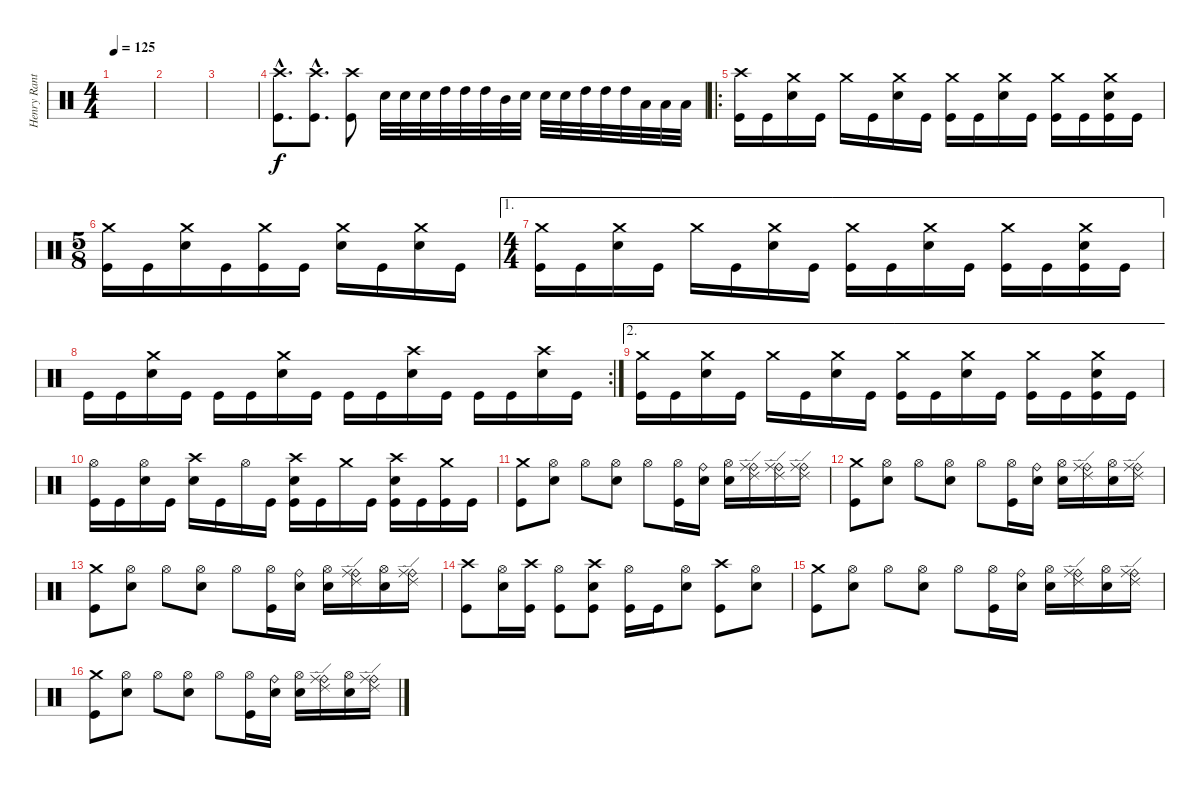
\track ("Henry Ranta" "Henry Rant") {instrument percussion}
\staff {score}
\articulation defaults
\ts (4 4)
\tempo 125
\clef neutral
\ks c
|
|
|
("Crash high (hit)"{hac} "Kick (hit)"{hac}).8{d} ("Crash high (hit)"{hac} "Kick (hit)"{hac}).8{d} ("Crash high (hit)" "Kick (hit)").8 "Electric Snare (hit)".32 "Electric Snare (hit)".32 "Electric Snare (hit)".32 "High Tom (hit)".32 "High Tom (hit)".32 "High Tom (hit)".32 "Mid Tom (hit)".32 "Electric Snare (hit)".32 "Electric Snare (hit)".32 "Electric Snare (hit)".32 "High Tom (hit)".32 "High Tom (hit)".32 "High Tom (hit)".32 "Low Tom (hit)".32 "Low Tom (hit)".32 "Low Tom (hit)".32 |
\ro
("Crash high (hit)" "Kick (hit)").16 "Kick (hit)".16 ("Crash medium (hit)" "Electric Snare (hit)").16 "Kick (hit)".16 "Crash medium (hit)".16 "Kick (hit)".16 ("Crash medium (hit)" "Electric Snare (hit)").16 "Kick (hit)".16 ("Crash medium (hit)" "Kick (hit)").16 "Kick (hit)".16 ("Crash medium (hit)" "Electric Snare (hit)").16 "Kick (hit)".16 ("Crash medium (hit)" "Kick (hit)").16 "Kick (hit)".16 ("Crash medium (hit)" "Electric Snare (hit)" "Kick (hit)").16 "Kick (hit)".16 |
\ts (5 8)
("Crash medium (hit)" "Kick (hit)").16 "Kick (hit)".16 ("Crash medium (hit)" "Electric Snare (hit)").16 "Kick (hit)".16 ("Crash medium (hit)" "Kick (hit)").16 "Kick (hit)".16 ("Crash medium (hit)" "Electric Snare (hit)").16 "Kick (hit)".16 ("Crash medium (hit)" "Electric Snare (hit)").16 "Kick (hit)".16 |
\ae 1
\ts (4 4)
("Crash medium (hit)" "Kick (hit)").16 "Kick (hit)".16 ("Crash medium (hit)" "Electric Snare (hit)").16 "Kick (hit)".16 "Crash medium (hit)".16 "Kick (hit)".16 ("Crash medium (hit)" "Electric Snare (hit)").16 "Kick (hit)".16 ("Crash medium (hit)" "Kick (hit)").16 "Kick (hit)".16 ("Crash medium (hit)" "Electric Snare (hit)").16 "Kick (hit)".16 ("Crash medium (hit)" "Kick (hit)").16 "Kick (hit)".16 ("Crash medium (hit)" "Electric Snare (hit)" "Kick (hit)").16 "Kick (hit)".16 |
\rc 2 "Kick (hit)".16 "Kick (hit)".16
("Crash medium (hit)" "Electric Snare (hit)").16 "Kick (hit)".16 "Kick (hit)".16 "Kick (hit)".16 ("Crash medium (hit)" "Electric Snare (hit)").16 "Kick (hit)".16 "Kick (hit)".16 "Kick (hit)".16 ("Crash high (hit)" "Electric Snare (hit)").16 "Kick (hit)".16 "Kick (hit)".16 "Kick (hit)".16 ("Crash high (hit)" "Electric Snare (hit)").16 "Kick (hit)".16 |
\ae 2
("Crash medium (hit)" "Kick (hit)").16 "Kick (hit)".16 ("Crash medium (hit)" "Electric Snare (hit)").16 "Kick (hit)".16 "Crash medium (hit)".16 "Kick (hit)".16 ("Crash medium (hit)" "Electric Snare (hit)").16 "Kick (hit)".16 ("Crash medium (hit)" "Kick (hit)").16 "Kick (hit)".16 ("Crash medium (hit)" "Electric Snare (hit)").16 "Kick (hit)".16 ("Crash medium (hit)" "Kick (hit)").16 "Kick (hit)".16 ("Crash medium (hit)" "Electric Snare (hit)" "Kick (hit)").16 "Kick (hit)".16 |
("Hi-Hat (open)" "Kick (hit)").16 "Kick (hit)".16 ("Hi-Hat (open)" "Electric Snare (hit)").16 "Kick (hit)".16 ("Crash high (hit)" "Electric Snare (hit)").16 "Kick (hit)".16 "Hi-Hat (open)".16 "Kick (hit)".16 ("Crash high (hit)" "Electric Snare (hit)" "Kick (hit)").16 "Kick (hit)".16 "Crash medium (hit)".16 "Kick (hit)".16 ("Crash high (hit)" "Electric Snare (hit)" "Kick (hit)").16 "Kick (hit)".16 ("Crash medium (hit)" "Kick (hit)").16 "Kick (hit)".16 |
("Crash medium (hit)" "Kick (hit)").8 ("Hi-Hat (open)" "Electric Snare (hit)").8 "Hi-Hat (open)".8 ("Hi-Hat (open)" "Electric Snare (hit)").8 "Hi-Hat (open)".8 ("Hi-Hat (open)" "Kick (hit)").16 ("Ride (bell)" "Electric Snare (hit)").16 ("Hi-Hat (open)" "Electric Snare (hit)").16 ("Ride (edge) 2" "Ride (bell)" "Ride (middle)").16 ("Ride (edge) 2" "Ride (bell)" "Ride (middle)").16 ("Ride (edge) 2" "Ride (bell)" "Ride (middle)").16 |
("Crash medium (hit)" "Kick (hit)").8 ("Hi-Hat (open)" "Electric Snare (hit)").8 "Hi-Hat (open)".8 ("Hi-Hat (open)" "Electric Snare (hit)").8 "Hi-Hat (open)".8 ("Hi-Hat (open)" "Kick (hit)").16 ("Ride (bell)" "Electric Snare (hit)").16 ("Hi-Hat (open)" "Electric Snare (hit)").16 ("Ride (edge) 2" "Ride (bell)" "Ride (middle)").16 ("Hi-Hat (open)" "Electric Snare (hit)").16 ("Ride (edge) 2" "Ride (bell)" "Ride (middle)").16 |
("Crash medium (hit)" "Kick (hit)").8 ("Hi-Hat (open)" "Electric Snare (hit)").8 "Hi-Hat (open)".8 ("Hi-Hat (open)" "Electric Snare (hit)").8 "Hi-Hat (open)".8 ("Hi-Hat (open)" "Kick (hit)").16 ("Ride (bell)" "Electric Snare (hit)").16 ("Hi-Hat (open)" "Electric Snare (hit)").16 ("Ride (edge) 2" "Ride (bell)" "Ride (middle)").16 ("Hi-Hat (open)" "Electric Snare (hit)").16 ("Ride (edge) 2" "Ride (bell)" "Ride (middle)").16 |
("Crash high (hit)" "Kick (hit)").8 ("Hi-Hat (open)" "Electric Snare (hit)").16 ("Crash high (hit)" "Kick (hit)").16 ("Hi-Hat (open)" "Kick (hit)").8 ("Crash high (hit)" "Electric Snare (hit)" "Kick (hit)").8 ("Hi-Hat (open)" "Kick (hit)").16 "Kick (hit)".16 ("Hi-Hat (open)" "Electric Snare (hit)").8 ("Crash high (hit)" "Kick (hit)").8 ("Hi-Hat (open)" "Electric Snare (hit)").8 |
("Crash medium (hit)" "Kick (hit)").8 ("Hi-Hat (open)" "Electric Snare (hit)").8 "Hi-Hat (open)".8 ("Hi-Hat (open)" "Electric Snare (hit)").8 "Hi-Hat (open)".8 ("Hi-Hat (open)" "Kick (hit)").16 ("Ride (bell)" "Electric Snare (hit)").16 ("Hi-Hat (open)" "Electric Snare (hit)").16 ("Ride (edge) 2" "Ride (bell)" "Ride (middle)").16 ("Hi-Hat (open)" "Electric Snare (hit)").16 ("Ride (edge) 2" "Ride (bell)" "Ride (middle)").16 |
("Crash medium (hit)" "Kick (hit)").8 ("Hi-Hat (open)" "Electric Snare (hit)").8 "Hi-Hat (open)".8 ("Hi-Hat (open)" "Electric Snare (hit)").8 "Hi-Hat (open)".8 ("Hi-Hat (open)" "Kick (hit)").16 ("Ride (bell)" "Electric Snare (hit)").16 ("Hi-Hat (open)" "Electric Snare (hit)").16 ("Ride (edge) 2" "Ride (bell)" "Ride (middle)").16 ("Hi-Hat (open)" "Electric Snare (hit)").16 ("Ride (edge) 2" "Ride (bell)" "Ride (middle)").16
